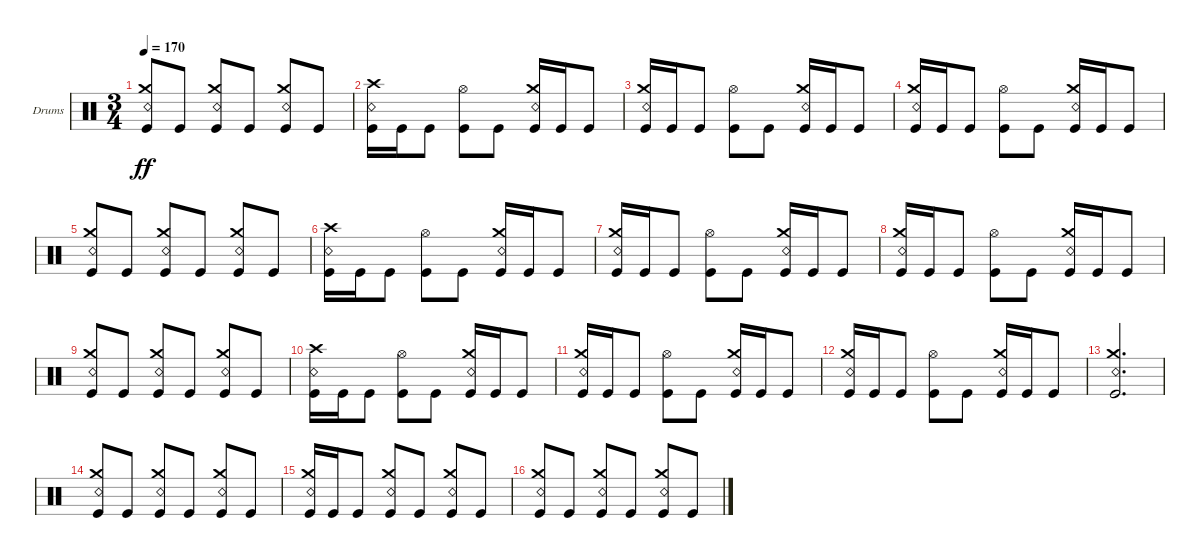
\bracketExtendMode groupsimilarinstruments
\firstSystemTrackNameOrientation horizontal
\otherSystemsTrackNameOrientation horizontal
\track ("Kaleb - Drums" "Drums") {instrument percussion}
\staff {score}
\articulation defaults
\ts (3 4)
\tempo 170
\clef neutral
\ks c
("Kick (hit)" "Crash medium (hit)" "Snare (rim shot)").8{dy ff} "Kick (hit)".8 ("Kick (hit)" "Crash medium (hit)" "Snare (rim shot)").8 "Kick (hit)".8 ("Kick (hit)" "Crash medium (hit)" "Snare (rim shot)").8 "Kick (hit)".8 |
("Kick (hit)" "Snare (rim shot)" "Crash high (hit)").16 "Kick (hit)".16 "Kick (hit)".8 ("Kick (hit)" "Hi-Hat (open)").8 "Kick (hit)".8 ("Kick (hit)" "Snare (rim shot)" "Crash medium (hit)").16 "Kick (hit)".16 "Kick (hit)".8 |
("Kick (hit)" "Snare (rim shot)" "Crash medium (hit)").16 "Kick (hit)".16 "Kick (hit)".8 ("Kick (hit)" "Hi-Hat (open)").8 "Kick (hit)".8 ("Kick (hit)" "Snare (rim shot)" "Crash medium (hit)").16 "Kick (hit)".16 "Kick (hit)".8 |
("Kick (hit)" "Snare (rim shot)" "Crash medium (hit)").16 "Kick (hit)".16 "Kick (hit)".8 ("Kick (hit)" "Hi-Hat (open)").8 "Kick (hit)".8 ("Kick (hit)" "Snare (rim shot)" "Crash medium (hit)").16 "Kick (hit)".16 "Kick (hit)".8 |
("Kick (hit)" "Crash medium (hit)" "Snare (rim shot)").8 "Kick (hit)".8 ("Kick (hit)" "Crash medium (hit)" "Snare (rim shot)").8 "Kick (hit)".8 ("Kick (hit)" "Crash medium (hit)" "Snare (rim shot)").8 "Kick (hit)".8 |
("Kick (hit)" "Snare (rim shot)" "Crash high (hit)").16 "Kick (hit)".16 "Kick (hit)".8 ("Kick (hit)" "Hi-Hat (open)").8 "Kick (hit)".8 ("Kick (hit)" "Snare (rim shot)" "Crash medium (hit)").16 "Kick (hit)".16 "Kick (hit)".8 |
("Kick (hit)" "Snare (rim shot)" "Crash medium (hit)").16 "Kick (hit)".16 "Kick (hit)".8 ("Kick (hit)" "Hi-Hat (open)").8 "Kick (hit)".8 ("Kick (hit)" "Snare (rim shot)" "Crash medium (hit)").16 "Kick (hit)".16 "Kick (hit)".8 |
("Kick (hit)" "Snare (rim shot)" "Crash medium (hit)").16 "Kick (hit)".16 "Kick (hit)".8 ("Kick (hit)" "Hi-Hat (open)").8 "Kick (hit)".8 ("Kick (hit)" "Snare (rim shot)" "Crash medium (hit)").16 "Kick (hit)".16 "Kick (hit)".8 |
("Kick (hit)" "Crash medium (hit)" "Snare (rim shot)").8 "Kick (hit)".8 ("Kick (hit)" "Crash medium (hit)" "Snare (rim shot)").8 "Kick (hit)".8 ("Kick (hit)" "Crash medium (hit)" "Snare (rim shot)").8 "Kick (hit)".8 |
("Kick (hit)" "Snare (rim shot)" "Crash high (hit)").16 "Kick (hit)".16 "Kick (hit)".8 ("Kick (hit)" "Hi-Hat (open)").8 "Kick (hit)".8 ("Kick (hit)" "Snare (rim shot)" "Crash medium (hit)").16 "Kick (hit)".16 "Kick (hit)".8 |
("Kick (hit)" "Snare (rim shot)" "Crash medium (hit)").16 "Kick (hit)".16 "Kick (hit)".8 ("Kick (hit)" "Hi-Hat (open)").8 "Kick (hit)".8 ("Kick (hit)" "Snare (rim shot)" "Crash medium (hit)").16 "Kick (hit)".16 "Kick (hit)".8 |
("Kick (hit)" "Snare (rim shot)" "Crash medium (hit)").16 "Kick (hit)".16 "Kick (hit)".8 ("Kick (hit)" "Hi-Hat (open)").8 "Kick (hit)".8 ("Kick (hit)" "Snare (rim shot)" "Crash medium (hit)").16 "Kick (hit)".16 "Kick (hit)".8 |
("Kick (hit)" "Crash medium (hit)" "Snare (rim shot)").2{d} |
("Kick (hit)" "Snare (rim shot)" "Crash medium (hit)").8 "Kick (hit)".8 ("Kick (hit)" "Snare (rim shot)" "Crash medium (hit)").8 "Kick (hit)".8 ("Kick (hit)" "Snare (rim shot)" "Crash medium (hit)").8 "Kick (hit)".8 |
("Kick (hit)" "Snare (rim shot)" "Crash medium (hit)").16 "Kick (hit)".16 "Kick (hit)".8 ("Kick (hit)" "Snare (rim shot)" "Crash medium (hit)").8 "Kick (hit)".8 ("Kick (hit)" "Snare (rim shot)" "Crash medium (hit)").8 "Kick (hit)".8 |
("Kick (hit)" "Snare (rim shot)" "Crash medium (hit)").8 "Kick (hit)".8 ("Kick (hit)" "Snare (rim shot)" "Crash medium (hit)").8 "Kick (hit)".8 ("Kick (hit)" "Snare (rim shot)" "Crash medium (hit)").8 "Kick (hit)".8
